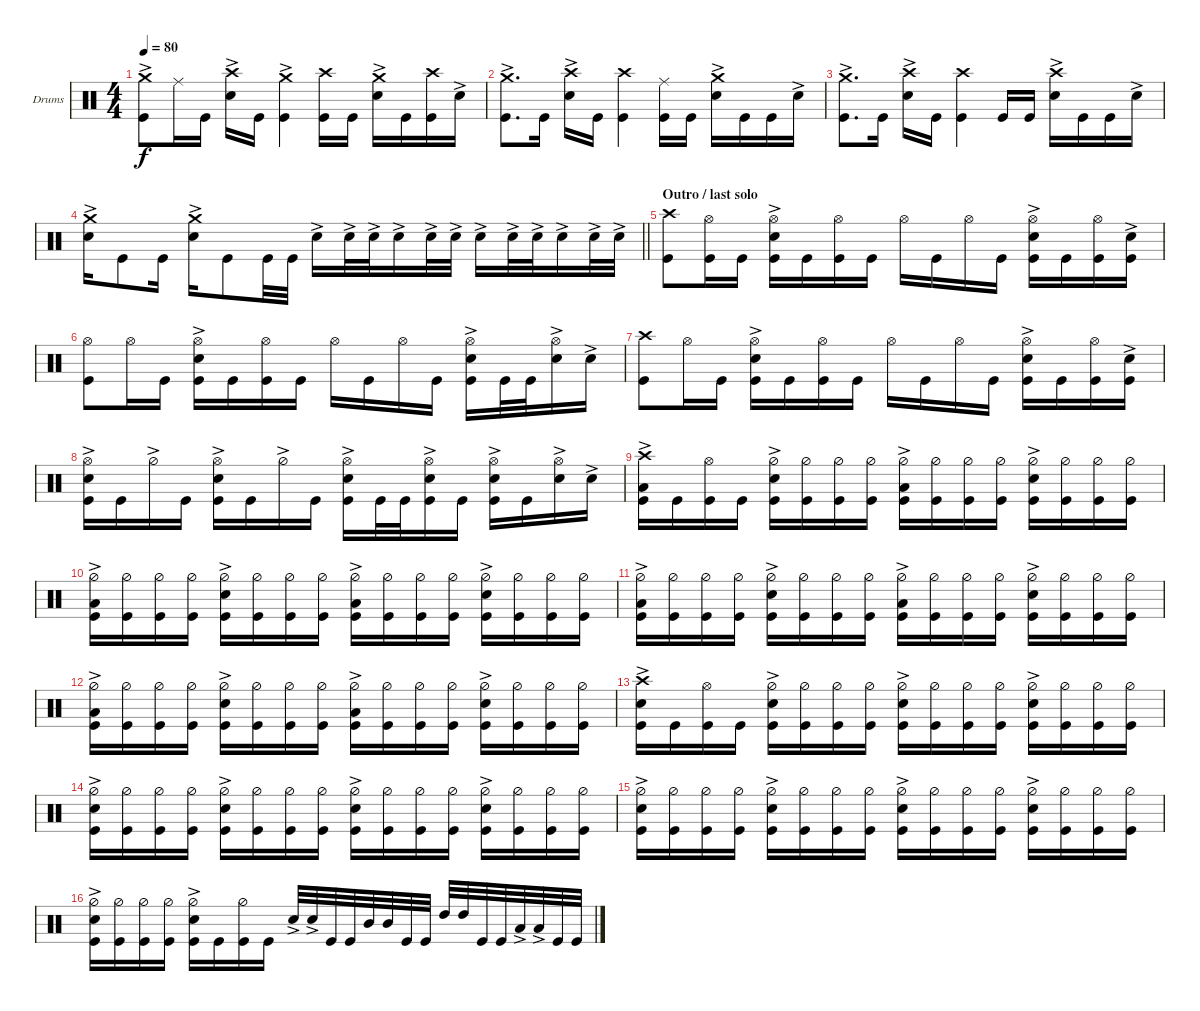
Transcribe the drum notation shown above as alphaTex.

\bracketExtendMode groupsimilarinstruments
\firstSystemTrackNameOrientation horizontal
\otherSystemsTrackNameOrientation horizontal
\track ("Drumkit" "Drums") {instrument percussion}
\staff {score}
\articulation defaults
\ts (4 4)
\tempo 80
\clef neutral
\ks c
("Crash medium (hit)"{ac} "Kick (hit)").8{dy f} "Ride (middle)".16 "Kick (hit)".16 ("Snare (hit) 2"{ac} "Crash high (hit)").16 "Kick (hit)".16 ("Crash medium (hit)"{ac} "Kick (hit)").4 ("Kick (hit)" "Crash high (hit)").16 "Kick (hit)".16 ("Crash medium (hit)"{ac} "Snare (hit) 2"{ac}).16 "Kick (hit)".16 ("Kick (hit)" "Crash high (hit)").16 "Snare (hit) 2"{ac}.16 |
("Crash medium (hit)"{ac} "Kick (hit)").8{d} "Kick (hit)".16 ("Snare (hit) 2"{ac} "Crash high (hit)").16 "Kick (hit)".16 ("Kick (hit)" "Crash high (hit)").4 ("Kick (hit)" "Ride (middle)").16 "Kick (hit)".16 ("Crash medium (hit)"{ac} "Snare (hit) 2"{ac}).16 "Kick (hit)".16 "Kick (hit)".16 "Snare (hit) 2"{ac}.16 |
("Crash medium (hit)"{ac} "Kick (hit)").8{d} "Kick (hit)".16 ("Snare (hit) 2"{ac} "Crash high (hit)").16 "Kick (hit)".16 ("Kick (hit)" "Crash high (hit)").4 "Kick (hit)".16 "Kick (hit)".16 ("Snare (hit) 2"{ac} "Crash high (hit)").16 "Kick (hit)".16 "Kick (hit)".16 "Snare (hit) 2"{ac}.16 |
\barLineRight lightlight
("Crash medium (hit)"{ac} "Snare (hit) 2"{ac}).16 "Kick (hit)".8 "Kick (hit)".16 ("Crash medium (hit)"{ac} "Snare (hit) 2"{ac}).16 "Kick (hit)".8 "Kick (hit)".32 "Kick (hit)".32 "Snare (hit) 2"{ac}.16 "Snare (hit) 2"{ac}.32 "Snare (hit) 2"{ac}.32 "Snare (hit) 2"{ac}.16 "Snare (hit) 2"{ac}.32 "Snare (hit) 2"{ac}.32 "Snare (hit) 2"{ac}.16 "Snare (hit) 2"{ac}.32 "Snare (hit) 2"{ac}.32 "Snare (hit) 2"{ac}.16 "Snare (hit) 2"{ac}.32 "Snare (hit) 2"{ac}.32 |
\section ("" "Outro / last solo")
("Crash high (hit)" "Kick (hit)").8 ("Kick (hit)" "Hi-Hat (open)").16 "Kick (hit)".16 ("Snare (hit) 2"{ac} "Kick (hit)" "Hi-Hat (open)").16 "Kick (hit)".16 ("Kick (hit)" "Hi-Hat (open)").16 "Kick (hit)".16 "Hi-Hat (open)".16 "Kick (hit)".16 "Hi-Hat (open)".16 "Kick (hit)".16 ("Snare (hit) 2"{ac} "Kick (hit)" "Hi-Hat (open)").16 "Kick (hit)".16 ("Kick (hit)" "Hi-Hat (open)").16 ("Snare (hit) 2"{ac} "Kick (hit)").16 |
("Kick (hit)" "Hi-Hat (open)").8 "Hi-Hat (open)".16 "Kick (hit)".16 ("Snare (hit) 2"{ac} "Kick (hit)" "Hi-Hat (open)").16 "Kick (hit)".16 ("Kick (hit)" "Hi-Hat (open)").16 "Kick (hit)".16 "Hi-Hat (open)".16 "Kick (hit)".16 "Hi-Hat (open)".16 "Kick (hit)".16 ("Snare (hit) 2"{ac} "Kick (hit)" "Hi-Hat (open)").16 "Kick (hit)".32 "Kick (hit)".32 ("Snare (hit) 2"{ac} "Hi-Hat (open)").16 "Snare (hit) 2"{ac}.16 |
("Crash high (hit)" "Kick (hit)").8 "Hi-Hat (open)".16 "Kick (hit)".16 ("Snare (hit) 2"{ac} "Kick (hit)" "Hi-Hat (open)").16 "Kick (hit)".16 ("Kick (hit)" "Hi-Hat (open)").16 "Kick (hit)".16 "Hi-Hat (open)".16 "Kick (hit)".16 "Hi-Hat (open)".16 "Kick (hit)".16 ("Snare (hit) 2"{ac} "Kick (hit)" "Hi-Hat (open)").16 "Kick (hit)".16 ("Kick (hit)" "Hi-Hat (open)").16 ("Snare (hit) 2"{ac} "Kick (hit)").16 |
("Snare (hit) 2"{ac} "Kick (hit)" "Hi-Hat (open)").16 "Kick (hit)".16 "Hi-Hat (half)"{ac}.16 "Kick (hit)".16 ("Snare (hit) 2"{ac} "Kick (hit)" "Hi-Hat (open)").16 "Kick (hit)".16 "Hi-Hat (half)"{ac}.16 "Kick (hit)".16 ("Snare (hit) 2"{ac} "Kick (hit)" "Hi-Hat (open)").16 "Kick (hit)".32 "Kick (hit)".32 ("Snare (hit) 2"{ac} "Kick (hit)" "Hi-Hat (open)").16 "Kick (hit)".16 ("Snare (hit) 2"{ac} "Kick (hit)" "Hi-Hat (open)").16 "Kick (hit)".16 ("Snare (hit) 2"{ac} "Hi-Hat (open)").16 "Snare (hit) 2"{ac}.16 |
("Crash high (hit)" "Low Tom (hit)"{ac} "Kick (hit)").16 "Kick (hit)".16 ("Kick (hit)" "Hi-Hat (open)").16 "Kick (hit)".16 ("Snare (hit) 2"{ac} "Kick (hit)" "Hi-Hat (half)").16 ("Kick (hit)" "Hi-Hat (half)").16 ("Kick (hit)" "Hi-Hat (half)").16 ("Kick (hit)" "Hi-Hat (half)").16 ("Kick (hit)" "Low Tom (hit)"{ac} "Hi-Hat (half)").16 ("Kick (hit)" "Hi-Hat (half)").16 ("Kick (hit)" "Hi-Hat (half)").16 ("Kick (hit)" "Hi-Hat (half)").16 ("Snare (hit) 2"{ac} "Kick (hit)" "Hi-Hat (half)").16 ("Kick (hit)" "Hi-Hat (half)").16 ("Kick (hit)" "Hi-Hat (half)").16 ("Kick (hit)" "Hi-Hat (half)").16 |
("Kick (hit)" "Low Tom (hit)"{ac} "Hi-Hat (half)").16 ("Kick (hit)" "Hi-Hat (half)").16 ("Kick (hit)" "Hi-Hat (half)").16 ("Kick (hit)" "Hi-Hat (half)").16 ("Snare (hit) 2"{ac} "Kick (hit)" "Hi-Hat (half)").16 ("Kick (hit)" "Hi-Hat (half)").16 ("Kick (hit)" "Hi-Hat (half)").16 ("Kick (hit)" "Hi-Hat (half)").16 ("Kick (hit)" "Low Tom (hit)"{ac} "Hi-Hat (half)").16 ("Kick (hit)" "Hi-Hat (half)").16 ("Kick (hit)" "Hi-Hat (half)").16 ("Kick (hit)" "Hi-Hat (half)").16 ("Snare (hit) 2"{ac} "Kick (hit)" "Hi-Hat (half)").16 ("Kick (hit)" "Hi-Hat (half)").16 ("Kick (hit)" "Hi-Hat (half)").16 ("Kick (hit)" "Hi-Hat (half)").16 |
("Kick (hit)" "Low Tom (hit)"{ac} "Hi-Hat (half)").16 ("Kick (hit)" "Hi-Hat (half)").16 ("Kick (hit)" "Hi-Hat (half)").16 ("Kick (hit)" "Hi-Hat (half)").16 ("Snare (hit) 2"{ac} "Kick (hit)" "Hi-Hat (half)").16 ("Kick (hit)" "Hi-Hat (half)").16 ("Kick (hit)" "Hi-Hat (half)").16 ("Kick (hit)" "Hi-Hat (half)").16 ("Kick (hit)" "Low Tom (hit)"{ac} "Hi-Hat (half)").16 ("Kick (hit)" "Hi-Hat (half)").16 ("Kick (hit)" "Hi-Hat (half)").16 ("Kick (hit)" "Hi-Hat (half)").16 ("Snare (hit) 2"{ac} "Kick (hit)" "Hi-Hat (half)").16 ("Kick (hit)" "Hi-Hat (half)").16 ("Kick (hit)" "Hi-Hat (half)").16 ("Kick (hit)" "Hi-Hat (half)").16 |
("Kick (hit)" "Low Tom (hit)"{ac} "Hi-Hat (half)").16 ("Kick (hit)" "Hi-Hat (half)").16 ("Kick (hit)" "Hi-Hat (half)").16 ("Kick (hit)" "Hi-Hat (half)").16 ("Snare (hit) 2"{ac} "Kick (hit)" "Hi-Hat (half)").16 ("Kick (hit)" "Hi-Hat (half)").16 ("Kick (hit)" "Hi-Hat (half)").16 ("Kick (hit)" "Hi-Hat (half)").16 ("Kick (hit)" "Low Tom (hit)"{ac} "Hi-Hat (half)").16 ("Kick (hit)" "Hi-Hat (half)").16 ("Kick (hit)" "Hi-Hat (half)").16 ("Kick (hit)" "Hi-Hat (half)").16 ("Snare (hit) 2"{ac} "Kick (hit)" "Hi-Hat (half)").16 ("Kick (hit)" "Hi-Hat (half)").16 ("Kick (hit)" "Hi-Hat (half)").16 ("Kick (hit)" "Hi-Hat (half)").16 |
("Crash high (hit)" "Snare (hit) 2"{ac} "Kick (hit)").16 "Kick (hit)".16 ("Kick (hit)" "Hi-Hat (open)").16 "Kick (hit)".16 ("Snare (hit) 2"{ac} "Kick (hit)" "Hi-Hat (half)").16 ("Kick (hit)" "Hi-Hat (half)").16 ("Kick (hit)" "Hi-Hat (half)").16 ("Kick (hit)" "Hi-Hat (half)").16 ("Snare (hit) 2"{ac} "Kick (hit)" "Hi-Hat (half)").16 ("Kick (hit)" "Hi-Hat (half)").16 ("Kick (hit)" "Hi-Hat (half)").16 ("Kick (hit)" "Hi-Hat (half)").16 ("Snare (hit) 2"{ac} "Kick (hit)" "Hi-Hat (half)").16 ("Kick (hit)" "Hi-Hat (half)").16 ("Kick (hit)" "Hi-Hat (half)").16 ("Kick (hit)" "Hi-Hat (half)").16 |
("Snare (hit) 2"{ac} "Kick (hit)" "Hi-Hat (half)").16 ("Kick (hit)" "Hi-Hat (half)").16 ("Kick (hit)" "Hi-Hat (half)").16 ("Kick (hit)" "Hi-Hat (half)").16 ("Snare (hit) 2"{ac} "Kick (hit)" "Hi-Hat (half)").16 ("Kick (hit)" "Hi-Hat (half)").16 ("Kick (hit)" "Hi-Hat (half)").16 ("Kick (hit)" "Hi-Hat (half)").16 ("Snare (hit) 2"{ac} "Kick (hit)" "Hi-Hat (half)").16 ("Kick (hit)" "Hi-Hat (half)").16 ("Kick (hit)" "Hi-Hat (half)").16 ("Kick (hit)" "Hi-Hat (half)").16 ("Snare (hit) 2"{ac} "Kick (hit)" "Hi-Hat (half)").16 ("Kick (hit)" "Hi-Hat (half)").16 ("Kick (hit)" "Hi-Hat (half)").16 ("Kick (hit)" "Hi-Hat (half)").16 |
("Snare (hit) 2"{ac} "Kick (hit)" "Hi-Hat (half)").16 ("Kick (hit)" "Hi-Hat (half)").16 ("Kick (hit)" "Hi-Hat (half)").16 ("Kick (hit)" "Hi-Hat (half)").16 ("Snare (hit) 2"{ac} "Kick (hit)" "Hi-Hat (half)").16 ("Kick (hit)" "Hi-Hat (half)").16 ("Kick (hit)" "Hi-Hat (half)").16 ("Kick (hit)" "Hi-Hat (half)").16 ("Snare (hit) 2"{ac} "Kick (hit)" "Hi-Hat (half)").16 ("Kick (hit)" "Hi-Hat (half)").16 ("Kick (hit)" "Hi-Hat (half)").16 ("Kick (hit)" "Hi-Hat (half)").16 ("Snare (hit) 2"{ac} "Kick (hit)" "Hi-Hat (half)").16 ("Kick (hit)" "Hi-Hat (half)").16 ("Kick (hit)" "Hi-Hat (half)").16 ("Kick (hit)" "Hi-Hat (half)").16 |
("Snare (hit) 2"{ac} "Kick (hit)" "Hi-Hat (half)").16 ("Kick (hit)" "Hi-Hat (half)").16 ("Kick (hit)" "Hi-Hat (half)").16 ("Kick (hit)" "Hi-Hat (half)").16 ("Snare (hit) 2"{ac} "Kick (hit)" "Hi-Hat (half)").16 "Kick (hit)".16 ("Kick (hit)" "Hi-Hat (half)").16 "Kick (hit)".16 "Snare (hit) 2"{ac}.32 "Snare (hit) 2"{ac}.32 "Kick (hit)".32 "Kick (hit)".32 "Mid Tom (hit)".32 "Mid Tom (hit)".32 "Kick (hit)".32 "Kick (hit)".32 "High Tom (hit)".32 "High Tom (hit)".32 "Kick (hit)".32 "Kick (hit)".32 "Low Tom (hit)"{ac}.32 "Low Tom (hit)"{ac}.32 "Kick (hit)".32 "Kick (hit)".32
